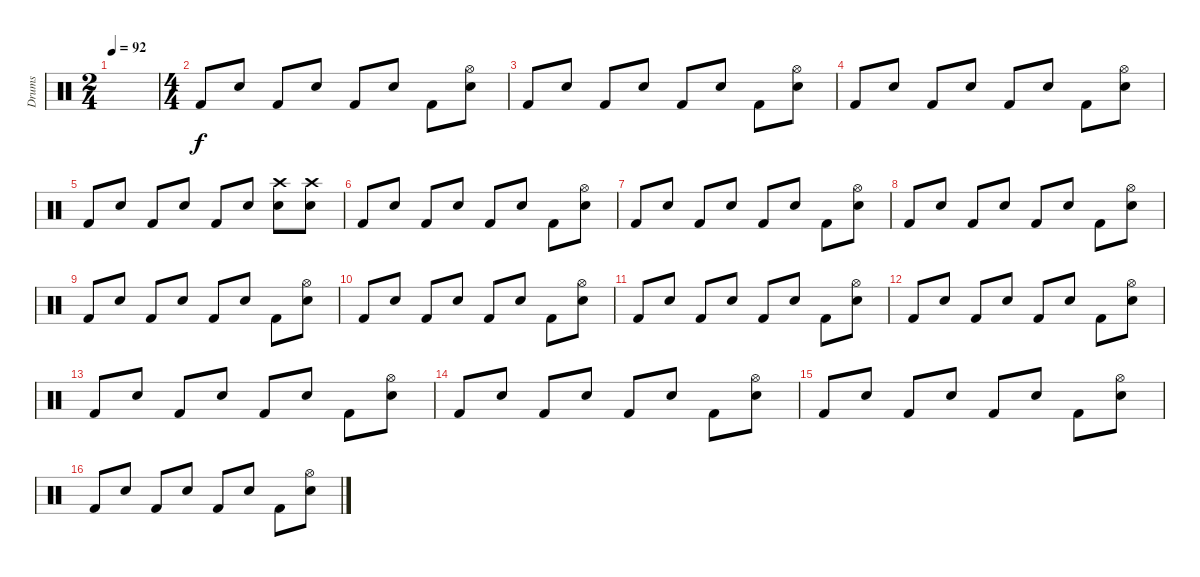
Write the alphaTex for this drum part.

\track ("Drums" "Drums") {instrument percussion}
\staff {score}
\articulation defaults
\ts (2 4)
\tempo 92
\clef neutral
\ks c
|
\ts (4 4)
"Kick (hit) 2".8 "Snare (hit) 2".8 "Kick (hit) 2".8 "Snare (hit) 2".8 "Kick (hit) 2".8 "Snare (hit) 2".8 "Kick (hit) 2".8 ("Hi-Hat (open)" "Snare (hit) 2").8 |
"Kick (hit) 2".8 "Snare (hit) 2".8 "Kick (hit) 2".8 "Snare (hit) 2".8 "Kick (hit) 2".8 "Snare (hit) 2".8 "Kick (hit) 2".8 ("Hi-Hat (open)" "Snare (hit) 2").8 |
"Kick (hit) 2".8 "Snare (hit) 2".8 "Kick (hit) 2".8 "Snare (hit) 2".8 "Kick (hit) 2".8 "Snare (hit) 2".8 "Kick (hit) 2".8 ("Hi-Hat (open)" "Snare (hit) 2").8 |
"Kick (hit) 2".8 "Snare (hit) 2".8 "Kick (hit) 2".8 "Snare (hit) 2".8 "Kick (hit) 2".8 "Snare (hit) 2".8 ("Crash high (hit)" "Snare (hit) 2").8 ("Crash high (hit)" "Snare (hit) 2").8 |
"Kick (hit) 2".8 "Snare (hit) 2".8 "Kick (hit) 2".8 "Snare (hit) 2".8 "Kick (hit) 2".8 "Snare (hit) 2".8 "Kick (hit) 2".8 ("Hi-Hat (open)" "Snare (hit) 2").8 |
"Kick (hit) 2".8 "Snare (hit) 2".8 "Kick (hit) 2".8 "Snare (hit) 2".8 "Kick (hit) 2".8 "Snare (hit) 2".8 "Kick (hit) 2".8 ("Hi-Hat (open)" "Snare (hit) 2").8 |
"Kick (hit) 2".8 "Snare (hit) 2".8 "Kick (hit) 2".8 "Snare (hit) 2".8 "Kick (hit) 2".8 "Snare (hit) 2".8 "Kick (hit) 2".8 ("Hi-Hat (open)" "Snare (hit) 2").8 |
"Kick (hit) 2".8 "Snare (hit) 2".8 "Kick (hit) 2".8 "Snare (hit) 2".8 "Kick (hit) 2".8 "Snare (hit) 2".8 "Kick (hit) 2".8 ("Hi-Hat (open)" "Snare (hit) 2").8 |
"Kick (hit) 2".8 "Snare (hit) 2".8 "Kick (hit) 2".8 "Snare (hit) 2".8 "Kick (hit) 2".8 "Snare (hit) 2".8 "Kick (hit) 2".8 ("Hi-Hat (open)" "Snare (hit) 2").8 |
"Kick (hit) 2".8 "Snare (hit) 2".8 "Kick (hit) 2".8 "Snare (hit) 2".8 "Kick (hit) 2".8 "Snare (hit) 2".8 "Kick (hit) 2".8 ("Hi-Hat (open)" "Snare (hit) 2").8 |
"Kick (hit) 2".8 "Snare (hit) 2".8 "Kick (hit) 2".8 "Snare (hit) 2".8 "Kick (hit) 2".8 "Snare (hit) 2".8 "Kick (hit) 2".8 ("Hi-Hat (open)" "Snare (hit) 2").8 |
"Kick (hit) 2".8 "Snare (hit) 2".8 "Kick (hit) 2".8 "Snare (hit) 2".8 "Kick (hit) 2".8 "Snare (hit) 2".8 "Kick (hit) 2".8 ("Hi-Hat (open)" "Snare (hit) 2").8 |
"Kick (hit) 2".8 "Snare (hit) 2".8 "Kick (hit) 2".8 "Snare (hit) 2".8 "Kick (hit) 2".8 "Snare (hit) 2".8 "Kick (hit) 2".8 ("Hi-Hat (open)" "Snare (hit) 2").8 |
"Kick (hit) 2".8 "Snare (hit) 2".8 "Kick (hit) 2".8 "Snare (hit) 2".8 "Kick (hit) 2".8 "Snare (hit) 2".8 "Kick (hit) 2".8 ("Hi-Hat (open)" "Snare (hit) 2").8 |
"Kick (hit) 2".8 "Snare (hit) 2".8 "Kick (hit) 2".8 "Snare (hit) 2".8 "Kick (hit) 2".8 "Snare (hit) 2".8 "Kick (hit) 2".8 ("Hi-Hat (open)" "Snare (hit) 2").8
